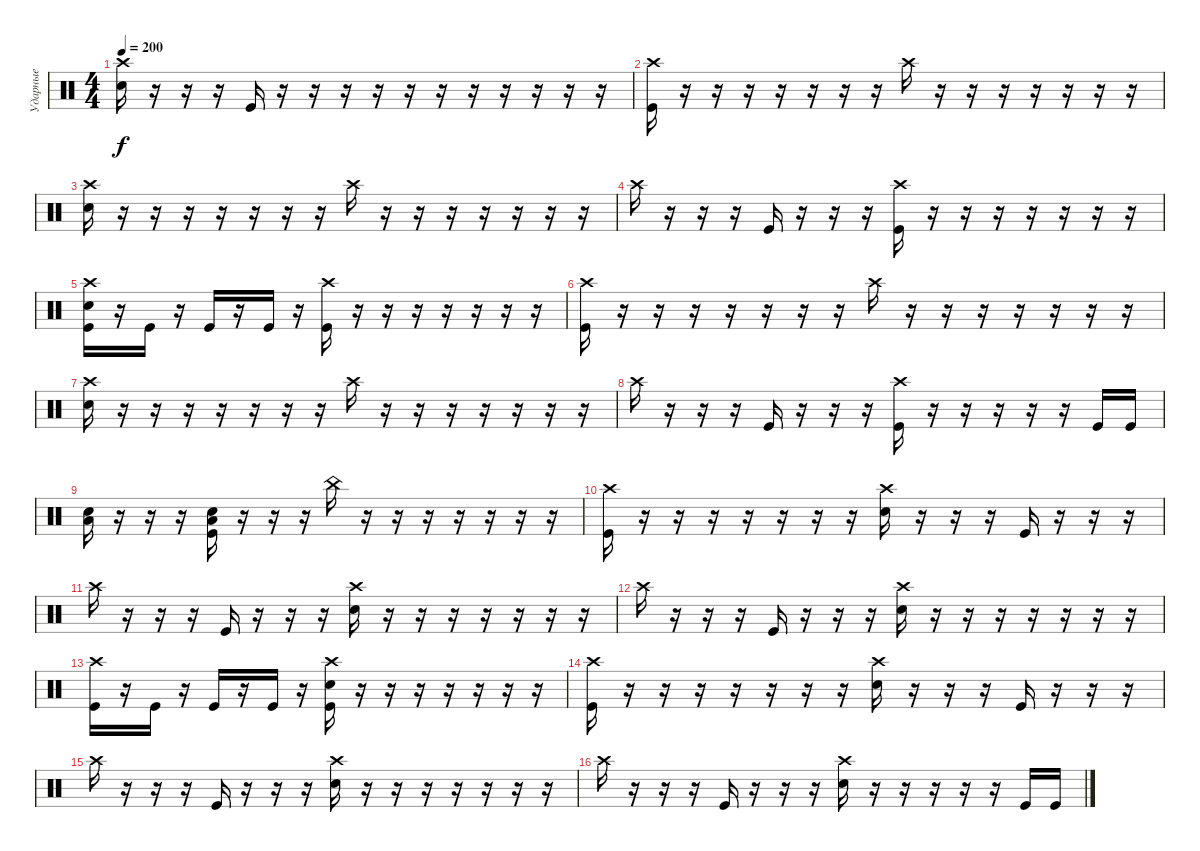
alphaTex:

\track ("Ударные" "Ударные") {instrument percussion}
\staff {score}
\articulation defaults
\ts (4 4)
\tempo 200
\clef neutral
\ks c
("Crash high (hit)" "Electric Snare (hit)").16{dy f} r.16 r.16 r.16 "Kick (hit)".16 r.16 r.16 r.16 r.16 r.16 r.16 r.16 r.16 r.16 r.16 r.16 |
("Crash high (hit)" "Kick (hit)").16 r.16 r.16 r.16 r.16 r.16 r.16 r.16 "Crash high (hit)".16 r.16 r.16 r.16 r.16 r.16 r.16 r.16 |
("Crash high (hit)" "Electric Snare (hit)").16 r.16 r.16 r.16 r.16 r.16 r.16 r.16 "Crash high (hit)".16 r.16 r.16 r.16 r.16 r.16 r.16 r.16 |
"Crash high (hit)".16 r.16 r.16 r.16 "Kick (hit)".16 r.16 r.16 r.16 ("Crash high (hit)" "Kick (hit)").16 r.16 r.16 r.16 r.16 r.16 r.16 r.16 |
("Crash high (hit)" "Kick (hit)" "Electric Snare (hit)").16 r.16 "Kick (hit)".16 r.16 "Kick (hit)".16 r.16 "Kick (hit)".16 r.16 ("Crash high (hit)" "Kick (hit)").16 r.16 r.16 r.16 r.16 r.16 r.16 r.16 |
("Crash high (hit)" "Kick (hit)").16 r.16 r.16 r.16 r.16 r.16 r.16 r.16 "Crash high (hit)".16 r.16 r.16 r.16 r.16 r.16 r.16 r.16 |
("Crash high (hit)" "Electric Snare (hit)").16 r.16 r.16 r.16 r.16 r.16 r.16 r.16 "Crash high (hit)".16 r.16 r.16 r.16 r.16 r.16 r.16 r.16 |
"Crash high (hit)".16 r.16 r.16 r.16 "Kick (hit)".16 r.16 r.16 r.16 ("Crash high (hit)" "Kick (hit)").16 r.16 r.16 r.16 r.16 r.16 "Kick (hit)".16 "Kick (hit)".16 |
("Low Floor Tom (hit)" "Electric Snare (hit)").16 r.16 r.16 r.16 ("Low Floor Tom (hit)" "Kick (hit)" "Electric Snare (hit)").16 r.16 r.16 r.16 "China (hit)".16 r.16 r.16 r.16 r.16 r.16 r.16 r.16 |
("Crash high (hit)" "Kick (hit)").16 r.16 r.16 r.16 r.16 r.16 r.16 r.16 ("Crash high (hit)" "Electric Snare (hit)").16 r.16 r.16 r.16 "Kick (hit)".16 r.16 r.16 r.16 |
"Crash high (hit)".16 r.16 r.16 r.16 "Kick (hit)".16 r.16 r.16 r.16 ("Crash high (hit)" "Electric Snare (hit)").16 r.16 r.16 r.16 r.16 r.16 r.16 r.16 |
"Crash high (hit)".16 r.16 r.16 r.16 "Kick (hit)".16 r.16 r.16 r.16 ("Crash high (hit)" "Electric Snare (hit)").16 r.16 r.16 r.16 r.16 r.16 r.16 r.16 |
("Crash high (hit)" "Kick (hit)").16 r.16 "Kick (hit)".16 r.16 "Kick (hit)".16 r.16 "Kick (hit)".16 r.16 ("Crash high (hit)" "Kick (hit)" "Electric Snare (hit)").16 r.16 r.16 r.16 r.16 r.16 r.16 r.16 |
("Crash high (hit)" "Kick (hit)").16 r.16 r.16 r.16 r.16 r.16 r.16 r.16 ("Crash high (hit)" "Electric Snare (hit)").16 r.16 r.16 r.16 "Kick (hit)".16 r.16 r.16 r.16 |
"Crash high (hit)".16 r.16 r.16 r.16 "Kick (hit)".16 r.16 r.16 r.16 ("Crash high (hit)" "Electric Snare (hit)").16 r.16 r.16 r.16 r.16 r.16 r.16 r.16 |
"Crash high (hit)".16 r.16 r.16 r.16 "Kick (hit)".16 r.16 r.16 r.16 ("Crash high (hit)" "Electric Snare (hit)").16 r.16 r.16 r.16 r.16 r.16 "Kick (hit)".16 "Kick (hit)".16
